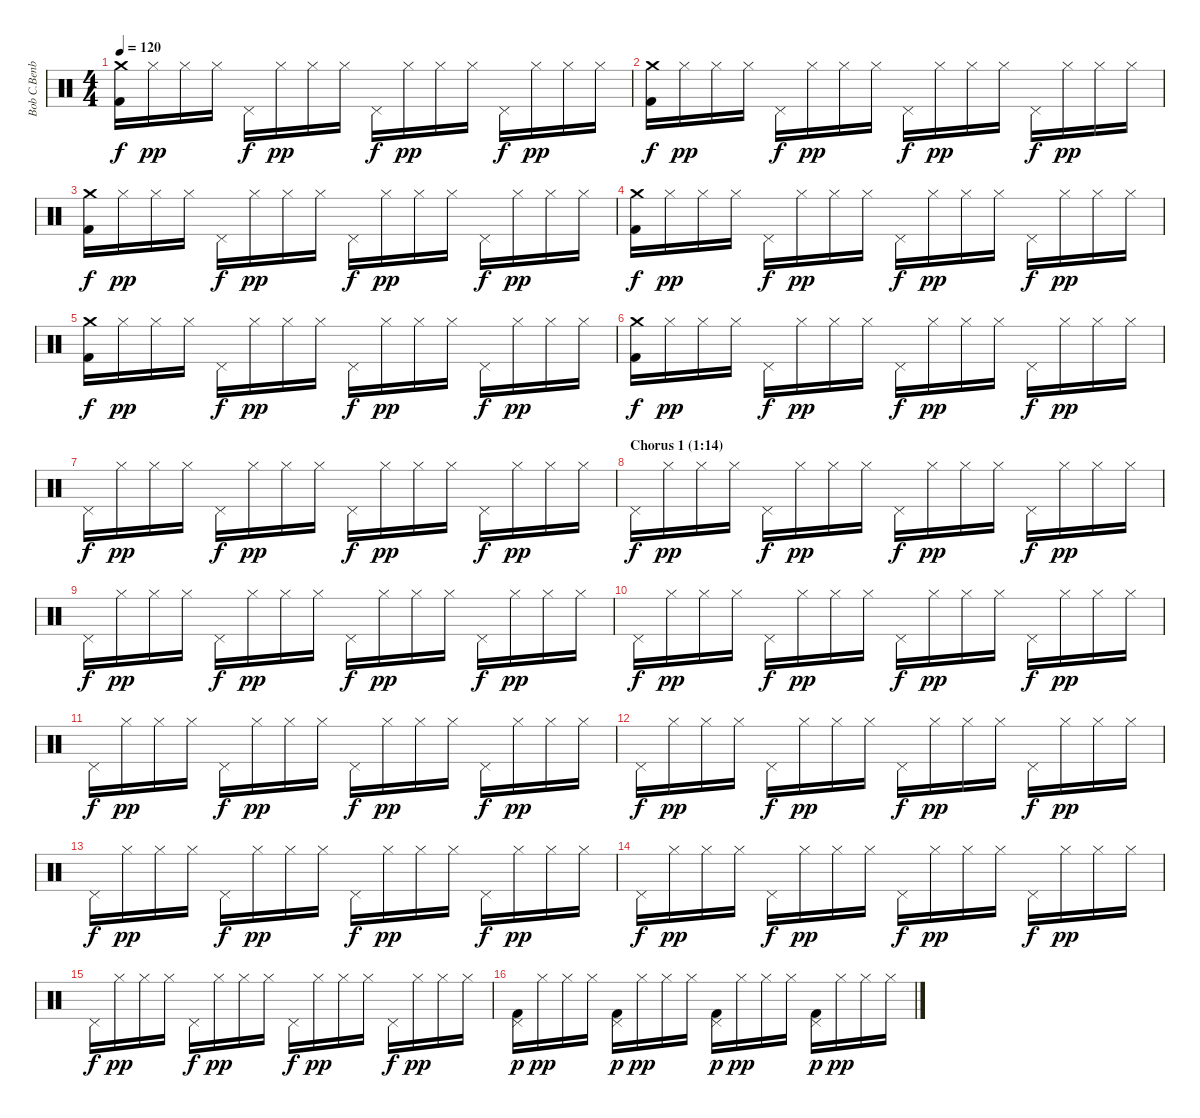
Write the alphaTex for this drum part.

\track ("Bob C.Benberg (drums)" "Bob C.Benb") {instrument percussion}
\staff {score}
\articulation defaults
\ts (4 4)
\tempo 120
\clef neutral
\ks c
("Crash medium (hit)" "Kick (hit) 2").16{dy f} "Hi-Hat (closed)".16{dy pp} "Hi-Hat (closed)".16 "Hi-Hat (closed)".16 "Pedal Hi-Hat (hit)".16{dy f} "Hi-Hat (closed)".16{dy pp} "Hi-Hat (closed)".16 "Hi-Hat (closed)".16 "Pedal Hi-Hat (hit)".16{dy f} "Hi-Hat (closed)".16{dy pp} "Hi-Hat (closed)".16 "Hi-Hat (closed)".16 "Pedal Hi-Hat (hit)".16{dy f} "Hi-Hat (closed)".16{dy pp} "Hi-Hat (closed)".16 "Hi-Hat (closed)".16 |
("Crash medium (hit)" "Kick (hit) 2").16{dy f} "Hi-Hat (closed)".16{dy pp} "Hi-Hat (closed)".16 "Hi-Hat (closed)".16 "Pedal Hi-Hat (hit)".16{dy f} "Hi-Hat (closed)".16{dy pp} "Hi-Hat (closed)".16 "Hi-Hat (closed)".16 "Pedal Hi-Hat (hit)".16{dy f} "Hi-Hat (closed)".16{dy pp} "Hi-Hat (closed)".16 "Hi-Hat (closed)".16 "Pedal Hi-Hat (hit)".16{dy f} "Hi-Hat (closed)".16{dy pp} "Hi-Hat (closed)".16 "Hi-Hat (closed)".16 |
("Crash medium (hit)" "Kick (hit) 2").16{dy f} "Hi-Hat (closed)".16{dy pp} "Hi-Hat (closed)".16 "Hi-Hat (closed)".16 "Pedal Hi-Hat (hit)".16{dy f} "Hi-Hat (closed)".16{dy pp} "Hi-Hat (closed)".16 "Hi-Hat (closed)".16 "Pedal Hi-Hat (hit)".16{dy f} "Hi-Hat (closed)".16{dy pp} "Hi-Hat (closed)".16 "Hi-Hat (closed)".16 "Pedal Hi-Hat (hit)".16{dy f} "Hi-Hat (closed)".16{dy pp} "Hi-Hat (closed)".16 "Hi-Hat (closed)".16 |
("Crash medium (hit)" "Kick (hit) 2").16{dy f} "Hi-Hat (closed)".16{dy pp} "Hi-Hat (closed)".16 "Hi-Hat (closed)".16 "Pedal Hi-Hat (hit)".16{dy f} "Hi-Hat (closed)".16{dy pp} "Hi-Hat (closed)".16 "Hi-Hat (closed)".16 "Pedal Hi-Hat (hit)".16{dy f} "Hi-Hat (closed)".16{dy pp} "Hi-Hat (closed)".16 "Hi-Hat (closed)".16 "Pedal Hi-Hat (hit)".16{dy f} "Hi-Hat (closed)".16{dy pp} "Hi-Hat (closed)".16 "Hi-Hat (closed)".16 |
("Crash medium (hit)" "Kick (hit) 2").16{dy f} "Hi-Hat (closed)".16{dy pp} "Hi-Hat (closed)".16 "Hi-Hat (closed)".16 "Pedal Hi-Hat (hit)".16{dy f} "Hi-Hat (closed)".16{dy pp} "Hi-Hat (closed)".16 "Hi-Hat (closed)".16 "Pedal Hi-Hat (hit)".16{dy f} "Hi-Hat (closed)".16{dy pp} "Hi-Hat (closed)".16 "Hi-Hat (closed)".16 "Pedal Hi-Hat (hit)".16{dy f} "Hi-Hat (closed)".16{dy pp} "Hi-Hat (closed)".16 "Hi-Hat (closed)".16 |
("Crash medium (hit)" "Kick (hit) 2").16{dy f} "Hi-Hat (closed)".16{dy pp} "Hi-Hat (closed)".16 "Hi-Hat (closed)".16 "Pedal Hi-Hat (hit)".16{dy f} "Hi-Hat (closed)".16{dy pp} "Hi-Hat (closed)".16 "Hi-Hat (closed)".16 "Pedal Hi-Hat (hit)".16{dy f} "Hi-Hat (closed)".16{dy pp} "Hi-Hat (closed)".16 "Hi-Hat (closed)".16 "Pedal Hi-Hat (hit)".16{dy f} "Hi-Hat (closed)".16{dy pp} "Hi-Hat (closed)".16 "Hi-Hat (closed)".16 |
"Pedal Hi-Hat (hit)".16{dy f} "Hi-Hat (closed)".16{dy pp} "Hi-Hat (closed)".16 "Hi-Hat (closed)".16 "Pedal Hi-Hat (hit)".16{dy f} "Hi-Hat (closed)".16{dy pp} "Hi-Hat (closed)".16 "Hi-Hat (closed)".16 "Pedal Hi-Hat (hit)".16{dy f} "Hi-Hat (closed)".16{dy pp} "Hi-Hat (closed)".16 "Hi-Hat (closed)".16 "Pedal Hi-Hat (hit)".16{dy f} "Hi-Hat (closed)".16{dy pp} "Hi-Hat (closed)".16 "Hi-Hat (closed)".16 |
\section ("" "Chorus 1 (1:14)")
"Pedal Hi-Hat (hit)".16{dy f} "Hi-Hat (closed)".16{dy pp} "Hi-Hat (closed)".16 "Hi-Hat (closed)".16 "Pedal Hi-Hat (hit)".16{dy f} "Hi-Hat (closed)".16{dy pp} "Hi-Hat (closed)".16 "Hi-Hat (closed)".16 "Pedal Hi-Hat (hit)".16{dy f} "Hi-Hat (closed)".16{dy pp} "Hi-Hat (closed)".16 "Hi-Hat (closed)".16 "Pedal Hi-Hat (hit)".16{dy f} "Hi-Hat (closed)".16{dy pp} "Hi-Hat (closed)".16 "Hi-Hat (closed)".16 |
"Pedal Hi-Hat (hit)".16{dy f} "Hi-Hat (closed)".16{dy pp} "Hi-Hat (closed)".16 "Hi-Hat (closed)".16 "Pedal Hi-Hat (hit)".16{dy f} "Hi-Hat (closed)".16{dy pp} "Hi-Hat (closed)".16 "Hi-Hat (closed)".16 "Pedal Hi-Hat (hit)".16{dy f} "Hi-Hat (closed)".16{dy pp} "Hi-Hat (closed)".16 "Hi-Hat (closed)".16 "Pedal Hi-Hat (hit)".16{dy f} "Hi-Hat (closed)".16{dy pp} "Hi-Hat (closed)".16 "Hi-Hat (closed)".16 |
"Pedal Hi-Hat (hit)".16{dy f} "Hi-Hat (closed)".16{dy pp} "Hi-Hat (closed)".16 "Hi-Hat (closed)".16 "Pedal Hi-Hat (hit)".16{dy f} "Hi-Hat (closed)".16{dy pp} "Hi-Hat (closed)".16 "Hi-Hat (closed)".16 "Pedal Hi-Hat (hit)".16{dy f} "Hi-Hat (closed)".16{dy pp} "Hi-Hat (closed)".16 "Hi-Hat (closed)".16 "Pedal Hi-Hat (hit)".16{dy f} "Hi-Hat (closed)".16{dy pp} "Hi-Hat (closed)".16 "Hi-Hat (closed)".16 |
"Pedal Hi-Hat (hit)".16{dy f} "Hi-Hat (closed)".16{dy pp} "Hi-Hat (closed)".16 "Hi-Hat (closed)".16 "Pedal Hi-Hat (hit)".16{dy f} "Hi-Hat (closed)".16{dy pp} "Hi-Hat (closed)".16 "Hi-Hat (closed)".16 "Pedal Hi-Hat (hit)".16{dy f} "Hi-Hat (closed)".16{dy pp} "Hi-Hat (closed)".16 "Hi-Hat (closed)".16 "Pedal Hi-Hat (hit)".16{dy f} "Hi-Hat (closed)".16{dy pp} "Hi-Hat (closed)".16 "Hi-Hat (closed)".16 |
"Pedal Hi-Hat (hit)".16{dy f} "Hi-Hat (closed)".16{dy pp} "Hi-Hat (closed)".16 "Hi-Hat (closed)".16 "Pedal Hi-Hat (hit)".16{dy f} "Hi-Hat (closed)".16{dy pp} "Hi-Hat (closed)".16 "Hi-Hat (closed)".16 "Pedal Hi-Hat (hit)".16{dy f} "Hi-Hat (closed)".16{dy pp} "Hi-Hat (closed)".16 "Hi-Hat (closed)".16 "Pedal Hi-Hat (hit)".16{dy f} "Hi-Hat (closed)".16{dy pp} "Hi-Hat (closed)".16 "Hi-Hat (closed)".16 |
"Pedal Hi-Hat (hit)".16{dy f} "Hi-Hat (closed)".16{dy pp} "Hi-Hat (closed)".16 "Hi-Hat (closed)".16 "Pedal Hi-Hat (hit)".16{dy f} "Hi-Hat (closed)".16{dy pp} "Hi-Hat (closed)".16 "Hi-Hat (closed)".16 "Pedal Hi-Hat (hit)".16{dy f} "Hi-Hat (closed)".16{dy pp} "Hi-Hat (closed)".16 "Hi-Hat (closed)".16 "Pedal Hi-Hat (hit)".16{dy f} "Hi-Hat (closed)".16{dy pp} "Hi-Hat (closed)".16 "Hi-Hat (closed)".16 |
"Pedal Hi-Hat (hit)".16{dy f} "Hi-Hat (closed)".16{dy pp} "Hi-Hat (closed)".16 "Hi-Hat (closed)".16 "Pedal Hi-Hat (hit)".16{dy f} "Hi-Hat (closed)".16{dy pp} "Hi-Hat (closed)".16 "Hi-Hat (closed)".16 "Pedal Hi-Hat (hit)".16{dy f} "Hi-Hat (closed)".16{dy pp} "Hi-Hat (closed)".16 "Hi-Hat (closed)".16 "Pedal Hi-Hat (hit)".16{dy f} "Hi-Hat (closed)".16{dy pp} "Hi-Hat (closed)".16 "Hi-Hat (closed)".16 |
"Pedal Hi-Hat (hit)".16{dy f} "Hi-Hat (closed)".16{dy pp} "Hi-Hat (closed)".16 "Hi-Hat (closed)".16 "Pedal Hi-Hat (hit)".16{dy f} "Hi-Hat (closed)".16{dy pp} "Hi-Hat (closed)".16 "Hi-Hat (closed)".16 "Pedal Hi-Hat (hit)".16{dy f} "Hi-Hat (closed)".16{dy pp} "Hi-Hat (closed)".16 "Hi-Hat (closed)".16 "Pedal Hi-Hat (hit)".16{dy f} "Hi-Hat (closed)".16{dy pp} "Hi-Hat (closed)".16 "Hi-Hat (closed)".16 |
("Pedal Hi-Hat (hit)" "Kick (hit) 2").16{dy p} "Hi-Hat (closed)".16{dy pp} "Hi-Hat (closed)".16 "Hi-Hat (closed)".16 ("Pedal Hi-Hat (hit)" "Kick (hit) 2").16{dy p} "Hi-Hat (closed)".16{dy pp} "Hi-Hat (closed)".16 "Hi-Hat (closed)".16 ("Pedal Hi-Hat (hit)" "Kick (hit) 2").16{dy p} "Hi-Hat (closed)".16{dy pp} "Hi-Hat (closed)".16 "Hi-Hat (closed)".16 ("Pedal Hi-Hat (hit)" "Kick (hit) 2").16{dy p} "Hi-Hat (closed)".16{dy pp} "Hi-Hat (closed)".16 "Hi-Hat (closed)".16
